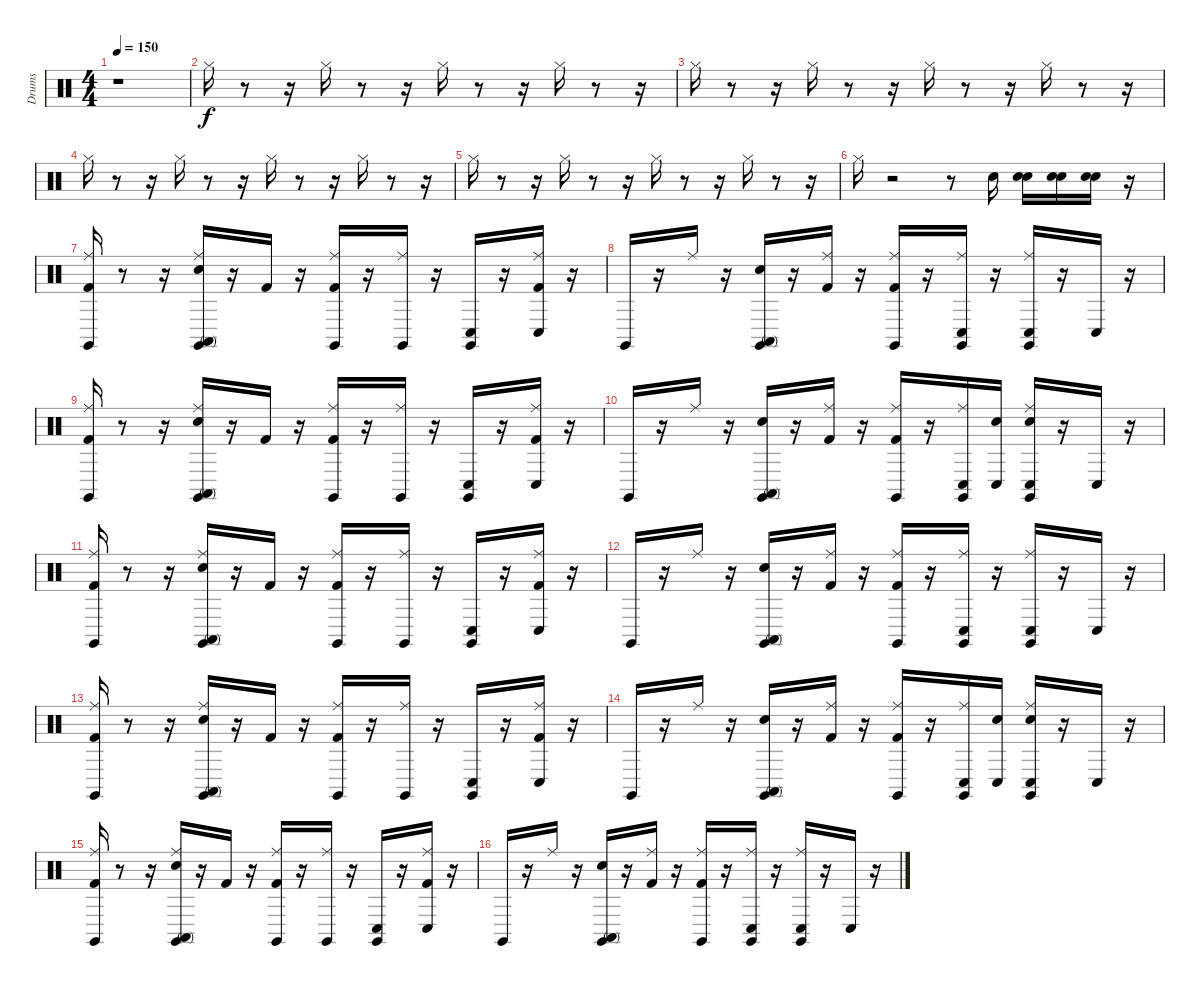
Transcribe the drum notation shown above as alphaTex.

\track ("Drums" "Drums") {instrument percussion}
\staff {score}
\articulation defaults
\ts (4 4)
\tempo 150
\clef neutral
\ks c
r.1{dy f} |
"Hi-Hat (closed)".16 r.8 r.16 "Hi-Hat (closed)".16 r.8 r.16 "Hi-Hat (closed)".16 r.8 r.16 "Hi-Hat (closed)".16 r.8 r.16 |
"Hi-Hat (closed)".16 r.8 r.16 "Hi-Hat (closed)".16 r.8 r.16 "Hi-Hat (closed)".16 r.8 r.16 "Hi-Hat (closed)".16 r.8 r.16 |
"Hi-Hat (closed)".16 r.8 r.16 "Hi-Hat (closed)".16 r.8 r.16 "Hi-Hat (closed)".16 r.8 r.16 "Hi-Hat (closed)".16 r.8 r.16 |
"Hi-Hat (closed)".16 r.8 r.16 "Hi-Hat (closed)".16 r.8 r.16 "Hi-Hat (closed)".16 r.8 r.16 "Hi-Hat (closed)".16 r.8 r.16 |
"Hi-Hat (closed)".16 r.2 r.8 "Snare (hit) 2".16 ("Snare (hit)" "Snare (hit) 2").16 ("Snare (hit)" "Snare (hit) 2").16 ("Snare (hit)" "Snare (hit) 2").16 r.16 |
("Kick (hit) 2" "Ride (middle)" "Claves (hit)").16 r.8 r.16 ("Snare (hit) 2" "Ride (middle)" "Conga high (mute)" "Claves (hit)").16 r.16 "Kick (hit) 2".16 r.16 ("Kick (hit) 2" "Ride (middle)" "Claves (hit)").16 r.16 ("Ride (middle)" "Claves (hit)").16 r.16 ("Conga low (hit)" "Claves (hit)").16 r.16 ("Kick (hit) 2" "Ride (middle)" "Conga low (hit)").16 r.16 |
"Claves (hit)".16 r.16 "Ride (middle)".16 r.16 ("Snare (hit) 2" "Conga high (mute)" "Claves (hit)").16 r.16 ("Kick (hit) 2" "Ride (middle)").16 r.16 ("Kick (hit) 2" "Ride (middle)" "Claves (hit)").16 r.16 ("Ride (middle)" "Conga low (hit)" "Claves (hit)").16 r.16 ("Ride (middle)" "Conga low (hit)" "Claves (hit)").16 r.16 "Conga low (hit)".16 r.16 |
("Kick (hit) 2" "Ride (middle)" "Claves (hit)").16 r.8 r.16 ("Snare (hit) 2" "Ride (middle)" "Conga high (mute)" "Claves (hit)").16 r.16 "Kick (hit) 2".16 r.16 ("Kick (hit) 2" "Ride (middle)" "Claves (hit)").16 r.16 ("Ride (middle)" "Claves (hit)").16 r.16 ("Conga low (hit)" "Claves (hit)").16 r.16 ("Kick (hit) 2" "Ride (middle)" "Conga low (hit)").16 r.16 |
"Claves (hit)".16 r.16 "Ride (middle)".16 r.16 ("Snare (hit) 2" "Conga high (mute)" "Claves (hit)").16 r.16 ("Kick (hit) 2" "Ride (middle)").16 r.16 ("Kick (hit) 2" "Ride (middle)" "Claves (hit)").16 r.16 ("Ride (middle)" "Conga low (hit)" "Claves (hit)").16 ("Snare (hit)" "Conga low (hit)").16 ("Snare (hit)" "Ride (middle)" "Conga low (hit)" "Claves (hit)").16 r.16 "Conga low (hit)".16 r.16 |
("Kick (hit) 2" "Ride (middle)" "Claves (hit)").16 r.8 r.16 ("Snare (hit) 2" "Ride (middle)" "Conga high (mute)" "Claves (hit)").16 r.16 "Kick (hit) 2".16 r.16 ("Kick (hit) 2" "Ride (middle)" "Claves (hit)").16 r.16 ("Ride (middle)" "Claves (hit)").16 r.16 ("Conga low (hit)" "Claves (hit)").16 r.16 ("Kick (hit) 2" "Ride (middle)" "Conga low (hit)").16 r.16 |
"Claves (hit)".16 r.16 "Ride (middle)".16 r.16 ("Snare (hit) 2" "Conga high (mute)" "Claves (hit)").16 r.16 ("Kick (hit) 2" "Ride (middle)").16 r.16 ("Kick (hit) 2" "Ride (middle)" "Claves (hit)").16 r.16 ("Ride (middle)" "Conga low (hit)" "Claves (hit)").16 r.16 ("Ride (middle)" "Conga low (hit)" "Claves (hit)").16 r.16 "Conga low (hit)".16 r.16 |
("Kick (hit) 2" "Ride (middle)" "Claves (hit)").16 r.8 r.16 ("Snare (hit) 2" "Ride (middle)" "Conga high (mute)" "Claves (hit)").16 r.16 "Kick (hit) 2".16 r.16 ("Kick (hit) 2" "Ride (middle)" "Claves (hit)").16 r.16 ("Ride (middle)" "Claves (hit)").16 r.16 ("Conga low (hit)" "Claves (hit)").16 r.16 ("Kick (hit) 2" "Ride (middle)" "Conga low (hit)").16 r.16 |
"Claves (hit)".16 r.16 "Ride (middle)".16 r.16 ("Snare (hit) 2" "Conga high (mute)" "Claves (hit)").16 r.16 ("Kick (hit) 2" "Ride (middle)").16 r.16 ("Kick (hit) 2" "Ride (middle)" "Claves (hit)").16 r.16 ("Ride (middle)" "Conga low (hit)" "Claves (hit)").16 ("Snare (hit)" "Conga low (hit)").16 ("Snare (hit)" "Ride (middle)" "Conga low (hit)" "Claves (hit)").16 r.16 "Conga low (hit)".16 r.16 |
("Kick (hit) 2" "Ride (middle)" "Claves (hit)").16 r.8 r.16 ("Snare (hit) 2" "Ride (middle)" "Conga high (mute)" "Claves (hit)").16 r.16 "Kick (hit) 2".16 r.16 ("Kick (hit) 2" "Ride (middle)" "Claves (hit)").16 r.16 ("Ride (middle)" "Claves (hit)").16 r.16 ("Conga low (hit)" "Claves (hit)").16 r.16 ("Kick (hit) 2" "Ride (middle)" "Conga low (hit)").16 r.16 |
"Claves (hit)".16 r.16 "Ride (middle)".16 r.16 ("Snare (hit) 2" "Conga high (mute)" "Claves (hit)").16 r.16 ("Kick (hit) 2" "Ride (middle)").16 r.16 ("Kick (hit) 2" "Ride (middle)" "Claves (hit)").16 r.16 ("Ride (middle)" "Conga low (hit)" "Claves (hit)").16 r.16 ("Ride (middle)" "Conga low (hit)" "Claves (hit)").16 r.16 "Conga low (hit)".16 r.16
